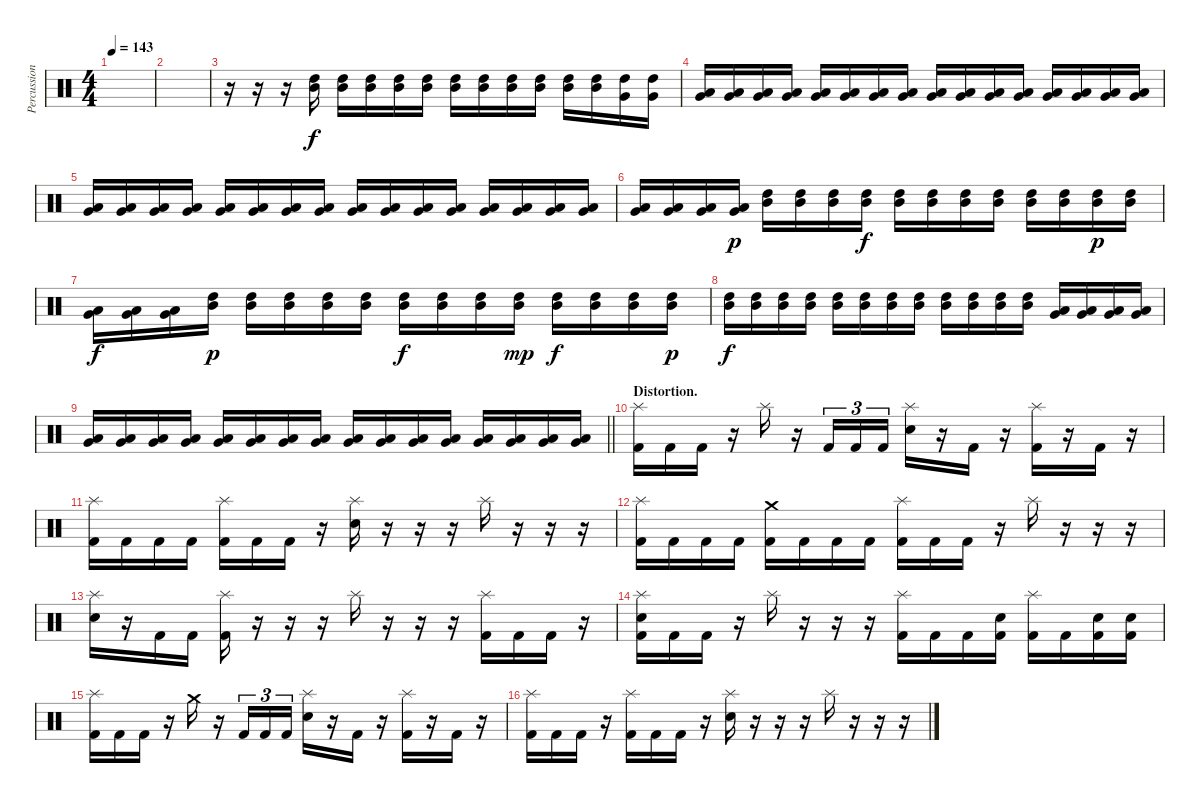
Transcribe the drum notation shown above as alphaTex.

\track ("Percussion" "Percussion") {instrument percussion}
\staff {score}
\articulation defaults
\ts (4 4)
\tempo 143
\clef neutral
\ks c
|
|
r.16{volume 0} r.16{volume 13} r.16 ("Mid Tom (hit)" "High Tom (hit)").16 ("Mid Tom (hit)" "High Tom (hit)").16 ("Mid Tom (hit)" "High Tom (hit)").16 ("Mid Tom (hit)" "High Tom (hit)").16 ("Mid Tom (hit)" "High Tom (hit)").16 ("Mid Tom (hit)" "High Tom (hit)").16{dy f} ("Mid Tom (hit)" "High Tom (hit)").16 ("Mid Tom (hit)" "High Tom (hit)").16 ("Mid Tom (hit)" "High Tom (hit)").16 ("Mid Tom (hit)" "High Tom (hit)").16 ("Mid Tom (hit)" "High Tom (hit)").16 ("Very Low Tom (hit)" "High Tom (hit)").16 ("Very Low Tom (hit)" "High Tom (hit)").16 |
("Very Low Tom (hit)" "Low Tom (hit)").16{volume 3} ("Very Low Tom (hit)" "Low Tom (hit)").16 ("Very Low Tom (hit)" "Low Tom (hit)").16 ("Very Low Tom (hit)" "Low Tom (hit)").16 ("Very Low Tom (hit)" "Low Tom (hit)").16 ("Very Low Tom (hit)" "Low Tom (hit)").16 ("Very Low Tom (hit)" "Low Tom (hit)").16 ("Very Low Tom (hit)" "Low Tom (hit)").16 ("Very Low Tom (hit)" "Low Tom (hit)").16 ("Very Low Tom (hit)" "Low Tom (hit)").16 ("Very Low Tom (hit)" "Low Tom (hit)").16 ("Very Low Tom (hit)" "Low Tom (hit)").16 ("Very Low Tom (hit)" "Low Tom (hit)").16 ("Very Low Tom (hit)" "Low Tom (hit)").16 ("Very Low Tom (hit)" "Low Tom (hit)").16 ("Very Low Tom (hit)" "Low Tom (hit)").16 |
("Very Low Tom (hit)" "Low Tom (hit)").16 ("Very Low Tom (hit)" "Low Tom (hit)").16{volume 13} ("Very Low Tom (hit)" "Low Tom (hit)").16 ("Very Low Tom (hit)" "Low Tom (hit)").16 ("Very Low Tom (hit)" "Low Tom (hit)").16 ("Very Low Tom (hit)" "Low Tom (hit)").16 ("Very Low Tom (hit)" "Low Tom (hit)").16 ("Very Low Tom (hit)" "Low Tom (hit)").16 ("Very Low Tom (hit)" "Low Tom (hit)").16 ("Very Low Tom (hit)" "Low Tom (hit)").16 ("Very Low Tom (hit)" "Low Tom (hit)").16 ("Very Low Tom (hit)" "Low Tom (hit)").16 ("Very Low Tom (hit)" "Low Tom (hit)").16 ("Very Low Tom (hit)" "Low Tom (hit)").16 ("Very Low Tom (hit)" "Low Tom (hit)").16 ("Very Low Tom (hit)" "Low Tom (hit)").16 |
("Very Low Tom (hit)" "Low Tom (hit)").16 ("Very Low Tom (hit)" "Low Tom (hit)").16 ("Very Low Tom (hit)" "Low Tom (hit)").16{volume 4} ("Very Low Tom (hit)" "Low Tom (hit)").16{dy p} ("Mid Tom (hit)" "High Tom (hit)").16 ("Mid Tom (hit)" "High Tom (hit)").16 ("Mid Tom (hit)" "High Tom (hit)").16 ("Mid Tom (hit)" "High Tom (hit)").16{dy f} ("Mid Tom (hit)" "High Tom (hit)").16 ("Mid Tom (hit)" "High Tom (hit)").16 ("Mid Tom (hit)" "High Tom (hit)").16 ("Mid Tom (hit)" "High Tom (hit)").16 ("Mid Tom (hit)" "High Tom (hit)").16 ("Mid Tom (hit)" "High Tom (hit)").16 ("Mid Tom (hit)" "High Tom (hit)").16{dy p} ("Mid Tom (hit)" "High Tom (hit)").16 |
("Very Low Tom (hit)" "Low Tom (hit)").16{dy f} ("Very Low Tom (hit)" "Low Tom (hit)").16 ("Very Low Tom (hit)" "Low Tom (hit)").16 ("Mid Tom (hit)" "High Tom (hit)").16{dy p volume 13} ("Mid Tom (hit)" "High Tom (hit)").16 ("Mid Tom (hit)" "High Tom (hit)").16 ("Mid Tom (hit)" "High Tom (hit)").16 ("Mid Tom (hit)" "High Tom (hit)").16 ("Mid Tom (hit)" "High Tom (hit)").16{dy f} ("Mid Tom (hit)" "High Tom (hit)").16 ("Mid Tom (hit)" "High Tom (hit)").16 ("Mid Tom (hit)" "High Tom (hit)").16{dy mp} ("Mid Tom (hit)" "High Tom (hit)").16{dy f} ("Mid Tom (hit)" "High Tom (hit)").16 ("Mid Tom (hit)" "High Tom (hit)").16 ("Mid Tom (hit)" "High Tom (hit)").16{dy p} |
("Mid Tom (hit)" "High Tom (hit)").16{dy f} ("Mid Tom (hit)" "High Tom (hit)").16 ("Mid Tom (hit)" "High Tom (hit)").16 ("Mid Tom (hit)" "High Tom (hit)").16 ("Mid Tom (hit)" "High Tom (hit)").16 ("Mid Tom (hit)" "High Tom (hit)").16 ("Mid Tom (hit)" "High Tom (hit)").16 ("Mid Tom (hit)" "High Tom (hit)").16 ("Mid Tom (hit)" "High Tom (hit)").16 ("Mid Tom (hit)" "High Tom (hit)").16 ("Mid Tom (hit)" "High Tom (hit)").16 ("Mid Tom (hit)" "High Tom (hit)").16 ("Very Low Tom (hit)" "Low Tom (hit)").16 ("Very Low Tom (hit)" "Low Tom (hit)").16 ("Very Low Tom (hit)" "Low Tom (hit)").16 ("Very Low Tom (hit)" "Low Tom (hit)").16 |
\barLineRight lightlight
("Very Low Tom (hit)" "Low Tom (hit)").16 ("Very Low Tom (hit)" "Low Tom (hit)").16 ("Very Low Tom (hit)" "Low Tom (hit)").16 ("Very Low Tom (hit)" "Low Tom (hit)").16 ("Very Low Tom (hit)" "Low Tom (hit)").16 ("Very Low Tom (hit)" "Low Tom (hit)").16 ("Very Low Tom (hit)" "Low Tom (hit)").16 ("Very Low Tom (hit)" "Low Tom (hit)").16 ("Very Low Tom (hit)" "Low Tom (hit)").16 ("Very Low Tom (hit)" "Low Tom (hit)").16 ("Very Low Tom (hit)" "Low Tom (hit)").16 ("Very Low Tom (hit)" "Low Tom (hit)").16 ("Very Low Tom (hit)" "Low Tom (hit)").16 ("Very Low Tom (hit)" "Low Tom (hit)").16 ("Very Low Tom (hit)" "Low Tom (hit)").16 ("Very Low Tom (hit)" "Low Tom (hit)").16 |
\section ("" "Distortion.")
("Splash (hit)" "Kick (hit) 2").16 "Kick (hit) 2".16 "Kick (hit) 2".16 r.16 "Splash (hit)".16 r.16 "Kick (hit) 2".16{tu (3 2)} "Kick (hit) 2".16{tu (3 2)} "Kick (hit) 2".16{tu (3 2)} ("Splash (hit)" "Electric Snare (hit)").16 r.16 "Kick (hit) 2".16 r.16 ("Splash (hit)" "Kick (hit) 2").16 r.16 "Kick (hit) 2".16 r.16 |
("Splash (hit)" "Kick (hit) 2").16 "Kick (hit) 2".16 "Kick (hit) 2".16 "Kick (hit) 2".16 ("Splash (hit)" "Kick (hit) 2").16 "Kick (hit) 2".16 "Kick (hit) 2".16 r.16 ("Splash (hit)" "Electric Snare (hit)").16 r.16 r.16 r.16 "Splash (hit)".16 r.16 r.16 r.16 |
("Splash (hit)" "Kick (hit) 2").16 "Kick (hit) 2".16 "Kick (hit) 2".16 "Kick (hit) 2".16 ("Crash medium (hit)" "Kick (hit) 2").16 "Kick (hit) 2".16 "Kick (hit) 2".16 "Kick (hit) 2".16 ("Splash (hit)" "Kick (hit) 2").16 "Kick (hit) 2".16 "Kick (hit) 2".16 r.16 "Splash (hit)".16 r.16 r.16 r.16 |
("Splash (hit)" "Electric Snare (hit)").16 r.16 "Kick (hit) 2".16 "Kick (hit) 2".16 ("Splash (hit)" "Kick (hit) 2").16 r.16 r.16 r.16 "Splash (hit)".16 r.16 r.16 r.16 ("Splash (hit)" "Kick (hit) 2").16 "Kick (hit) 2".16 "Kick (hit) 2".16 r.16 |
("Splash (hit)" "Electric Snare (hit)" "Kick (hit) 2").16 "Kick (hit) 2".16 "Kick (hit) 2".16 r.16 "Splash (hit)".16 r.16 r.16 r.16 ("Splash (hit)" "Kick (hit) 2").16 "Kick (hit) 2".16 "Kick (hit) 2".16 ("Electric Snare (hit)" "Kick (hit) 2").16 ("Splash (hit)" "Kick (hit) 2").16 "Kick (hit) 2".16 ("Electric Snare (hit)" "Kick (hit) 2").16 ("Electric Snare (hit)" "Kick (hit) 2").16 |
("Splash (hit)" "Kick (hit) 2").16 "Kick (hit) 2".16 "Kick (hit) 2".16 r.16 "Crash medium (hit)".16 r.16 "Kick (hit) 2".16{tu (3 2)} "Kick (hit) 2".16{tu (3 2)} "Kick (hit) 2".16{tu (3 2)} ("Splash (hit)" "Electric Snare (hit)").16 r.16 "Kick (hit) 2".16 r.16 ("Splash (hit)" "Kick (hit) 2").16 r.16 "Kick (hit) 2".16 r.16 |
("Splash (hit)" "Kick (hit) 2").16 "Kick (hit) 2".16 "Kick (hit) 2".16 r.16 ("Splash (hit)" "Kick (hit) 2").16 "Kick (hit) 2".16 "Kick (hit) 2".16 r.16 ("Splash (hit)" "Electric Snare (hit)").16 r.16 r.16 r.16 "Splash (hit)".16 r.16 r.16 r.16
